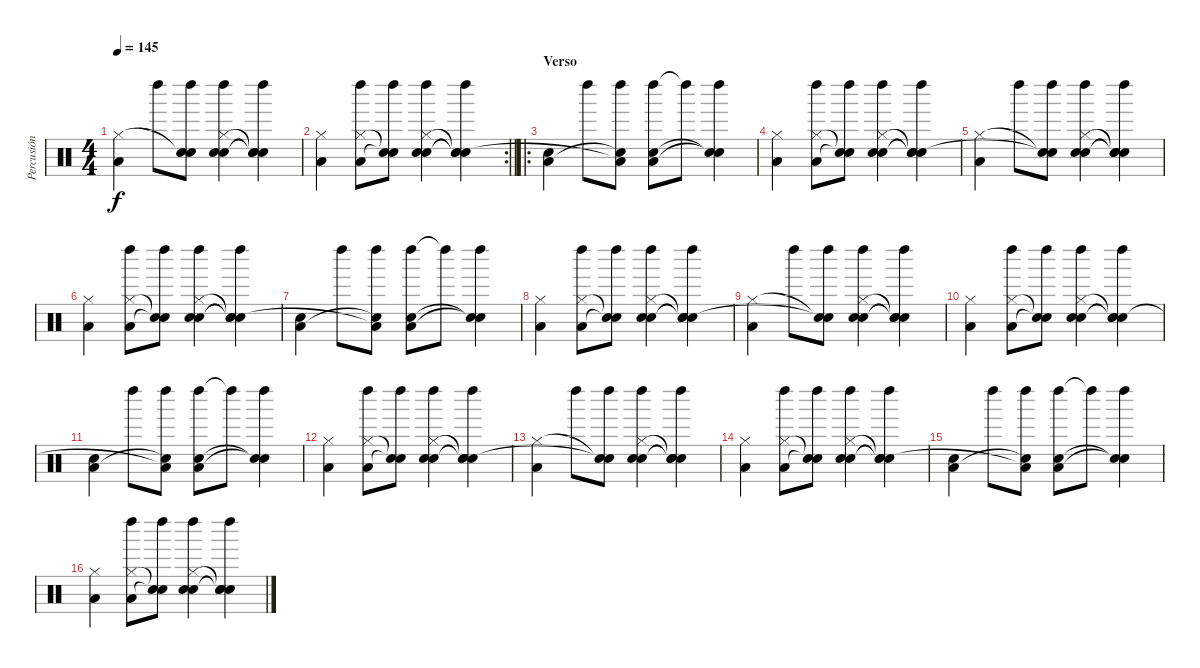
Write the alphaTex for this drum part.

\track ("Percusión" "Percusión") {instrument percussion}
\staff {score}
\articulation defaults
\ts (4 4)
\tempo 145
\clef neutral
\ks c
("Low Floor Tom (hit)" "Hi-Hat (closed)").4{dy f} "Left Maraca (hit)".8 ("Left Maraca (hit)" "Snare (hit)"{t} "Snare (hit)"{t}).8 ("Left Maraca (hit)" "Electric Snare (hit)" "Hi-Hat (closed)" "Snare (hit) 2").4 ("Left Maraca (hit)" "Snare (hit)"{t} "Snare (hit)"{t} "Snare (hit)"{t}).4 |
\rc 2
\barLineRight lightlight
("Low Floor Tom (hit)" "Hi-Hat (closed)").4 ("Left Maraca (hit)" "Low Floor Tom (hit)" "Hi-Hat (closed)").8 ("Left Maraca (hit)" "Snare (hit)"{t} "Snare (hit)"{t}).8 ("Left Maraca (hit)" "Electric Snare (hit)" "Hi-Hat (closed)" "Snare (hit) 2").4 ("Left Maraca (hit)" "Snare (hit)"{t} "Snare (hit)"{t} "Snare (hit)"{t}).4 |
\ro
\section ("" "Verso")
("Snare (hit) 2" "Low Floor Tom (hit)").4 "Left Maraca (hit)".8 ("Left Maraca (hit)" "Snare (hit)"{t} "Low Floor Tom (hit)"{t}).8 ("Left Maraca (hit)" "Snare (hit) 2" "Low Floor Tom (hit)").8 "Left Maraca (hit)"{t}.8 ("Left Maraca (hit)" "Snare (hit)"{t} "Snare (hit)"{t}).4 |
("Low Floor Tom (hit)" "Hi-Hat (closed)").4 ("Left Maraca (hit)" "Low Floor Tom (hit)" "Hi-Hat (closed)").8 ("Left Maraca (hit)" "Snare (hit)"{t} "Snare (hit)"{t}).8 ("Left Maraca (hit)" "Electric Snare (hit)" "Hi-Hat (closed)" "Snare (hit) 2").4 ("Left Maraca (hit)" "Snare (hit)"{t} "Snare (hit)"{t} "Snare (hit)"{t}).4 |
("Low Floor Tom (hit)" "Hi-Hat (closed)").4 "Left Maraca (hit)".8 ("Left Maraca (hit)" "Snare (hit)"{t} "Snare (hit)"{t}).8 ("Left Maraca (hit)" "Electric Snare (hit)" "Hi-Hat (closed)" "Snare (hit) 2").4 ("Left Maraca (hit)" "Snare (hit)"{t} "Snare (hit)"{t} "Snare (hit)"{t}).4 |
("Low Floor Tom (hit)" "Hi-Hat (closed)").4 ("Left Maraca (hit)" "Low Floor Tom (hit)" "Hi-Hat (closed)").8 ("Left Maraca (hit)" "Snare (hit)"{t} "Snare (hit)"{t}).8 ("Left Maraca (hit)" "Electric Snare (hit)" "Hi-Hat (closed)" "Snare (hit) 2").4 ("Left Maraca (hit)" "Snare (hit)"{t} "Snare (hit)"{t} "Snare (hit)"{t}).4 |
("Snare (hit) 2" "Low Floor Tom (hit)").4 "Left Maraca (hit)".8 ("Left Maraca (hit)" "Snare (hit)"{t} "Low Floor Tom (hit)"{t}).8 ("Left Maraca (hit)" "Snare (hit) 2" "Low Floor Tom (hit)").8 "Left Maraca (hit)"{t}.8 ("Left Maraca (hit)" "Snare (hit)"{t} "Snare (hit)"{t}).4 |
("Low Floor Tom (hit)" "Hi-Hat (closed)").4 ("Left Maraca (hit)" "Low Floor Tom (hit)" "Hi-Hat (closed)").8 ("Left Maraca (hit)" "Snare (hit)"{t} "Snare (hit)"{t}).8 ("Left Maraca (hit)" "Electric Snare (hit)" "Hi-Hat (closed)" "Snare (hit) 2").4 ("Left Maraca (hit)" "Snare (hit)"{t} "Snare (hit)"{t} "Snare (hit)"{t}).4 |
("Low Floor Tom (hit)" "Hi-Hat (closed)").4 "Left Maraca (hit)".8 ("Left Maraca (hit)" "Snare (hit)"{t} "Snare (hit)"{t}).8 ("Left Maraca (hit)" "Electric Snare (hit)" "Hi-Hat (closed)" "Snare (hit) 2").4 ("Left Maraca (hit)" "Snare (hit)"{t} "Snare (hit)"{t} "Snare (hit)"{t}).4 |
("Low Floor Tom (hit)" "Hi-Hat (closed)").4 ("Left Maraca (hit)" "Low Floor Tom (hit)" "Hi-Hat (closed)").8 ("Left Maraca (hit)" "Snare (hit)"{t} "Snare (hit)"{t}).8 ("Left Maraca (hit)" "Electric Snare (hit)" "Hi-Hat (closed)" "Snare (hit) 2").4 ("Left Maraca (hit)" "Snare (hit)"{t} "Snare (hit)"{t} "Snare (hit)"{t}).4 |
("Snare (hit) 2" "Low Floor Tom (hit)").4 "Left Maraca (hit)".8 ("Left Maraca (hit)" "Snare (hit)"{t} "Low Floor Tom (hit)"{t}).8 ("Left Maraca (hit)" "Snare (hit) 2" "Low Floor Tom (hit)").8 "Left Maraca (hit)"{t}.8 ("Left Maraca (hit)" "Snare (hit)"{t} "Snare (hit)"{t}).4 |
("Low Floor Tom (hit)" "Hi-Hat (closed)").4 ("Left Maraca (hit)" "Low Floor Tom (hit)" "Hi-Hat (closed)").8 ("Left Maraca (hit)" "Snare (hit)"{t} "Snare (hit)"{t}).8 ("Left Maraca (hit)" "Electric Snare (hit)" "Hi-Hat (closed)" "Snare (hit) 2").4 ("Left Maraca (hit)" "Snare (hit)"{t} "Snare (hit)"{t} "Snare (hit)"{t}).4 |
("Low Floor Tom (hit)" "Hi-Hat (closed)").4 "Left Maraca (hit)".8 ("Left Maraca (hit)" "Snare (hit)"{t} "Snare (hit)"{t}).8 ("Left Maraca (hit)" "Electric Snare (hit)" "Hi-Hat (closed)" "Snare (hit) 2").4 ("Left Maraca (hit)" "Snare (hit)"{t} "Snare (hit)"{t} "Snare (hit)"{t}).4 |
("Low Floor Tom (hit)" "Hi-Hat (closed)").4 ("Left Maraca (hit)" "Low Floor Tom (hit)" "Hi-Hat (closed)").8 ("Left Maraca (hit)" "Snare (hit)"{t} "Snare (hit)"{t}).8 ("Left Maraca (hit)" "Electric Snare (hit)" "Hi-Hat (closed)" "Snare (hit) 2").4 ("Left Maraca (hit)" "Snare (hit)"{t} "Snare (hit)"{t} "Snare (hit)"{t}).4 |
("Snare (hit) 2" "Low Floor Tom (hit)").4 "Left Maraca (hit)".8 ("Left Maraca (hit)" "Snare (hit)"{t} "Low Floor Tom (hit)"{t}).8 ("Left Maraca (hit)" "Snare (hit) 2" "Low Floor Tom (hit)").8 "Left Maraca (hit)"{t}.8 ("Left Maraca (hit)" "Snare (hit)"{t} "Snare (hit)"{t}).4 |
("Low Floor Tom (hit)" "Hi-Hat (closed)").4 ("Left Maraca (hit)" "Low Floor Tom (hit)" "Hi-Hat (closed)").8 ("Left Maraca (hit)" "Snare (hit)"{t} "Snare (hit)"{t}).8 ("Left Maraca (hit)" "Electric Snare (hit)" "Hi-Hat (closed)" "Snare (hit) 2").4 ("Left Maraca (hit)" "Snare (hit)"{t} "Snare (hit)"{t} "Snare (hit)"{t}).4
